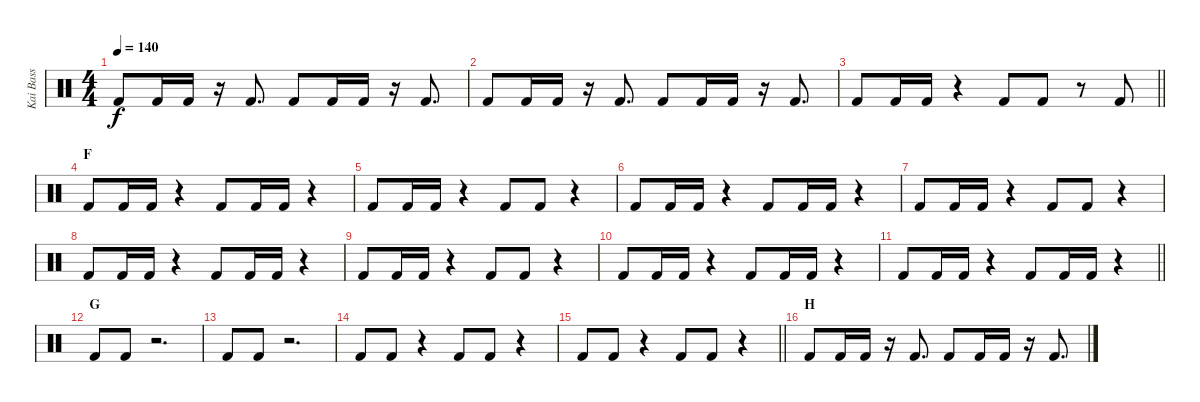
\track ("Kai Bass" "Kai Bass") {instrument percussion}
\staff {score}
\articulation defaults
\ts (4 4)
\tempo 140
\clef neutral
\ks c "Kick (hit) 2".8{dy f} "Kick (hit) 2".16 "Kick (hit) 2".16
r.16 "Kick (hit) 2".8{d} "Kick (hit) 2".8 "Kick (hit) 2".16 "Kick (hit) 2".16 r.16 "Kick (hit) 2".8{d} |
"Kick (hit) 2".8 "Kick (hit) 2".16 "Kick (hit) 2".16 r.16 "Kick (hit) 2".8{d} "Kick (hit) 2".8 "Kick (hit) 2".16 "Kick (hit) 2".16 r.16 "Kick (hit) 2".8{d} |
\barLineRight lightlight "Kick (hit) 2".8 "Kick (hit) 2".16 "Kick (hit) 2".16
r.4 "Kick (hit) 2".8 "Kick (hit) 2".8 r.8 "Kick (hit) 2".8 |
\section ("" "F")
"Kick (hit) 2".8 "Kick (hit) 2".16 "Kick (hit) 2".16 r.4 "Kick (hit) 2".8 "Kick (hit) 2".16 "Kick (hit) 2".16 r.4 |
"Kick (hit) 2".8 "Kick (hit) 2".16 "Kick (hit) 2".16 r.4 "Kick (hit) 2".8 "Kick (hit) 2".8 r.4 |
"Kick (hit) 2".8 "Kick (hit) 2".16 "Kick (hit) 2".16 r.4 "Kick (hit) 2".8 "Kick (hit) 2".16 "Kick (hit) 2".16 r.4 |
"Kick (hit) 2".8 "Kick (hit) 2".16 "Kick (hit) 2".16 r.4 "Kick (hit) 2".8 "Kick (hit) 2".8 r.4 |
"Kick (hit) 2".8 "Kick (hit) 2".16 "Kick (hit) 2".16 r.4 "Kick (hit) 2".8 "Kick (hit) 2".16 "Kick (hit) 2".16 r.4 |
"Kick (hit) 2".8 "Kick (hit) 2".16 "Kick (hit) 2".16 r.4 "Kick (hit) 2".8 "Kick (hit) 2".8 r.4 |
"Kick (hit) 2".8 "Kick (hit) 2".16 "Kick (hit) 2".16 r.4 "Kick (hit) 2".8 "Kick (hit) 2".16 "Kick (hit) 2".16 r.4 |
\barLineRight lightlight "Kick (hit) 2".8 "Kick (hit) 2".16 "Kick (hit) 2".16
r.4 "Kick (hit) 2".8 "Kick (hit) 2".16 "Kick (hit) 2".16 r.4 |
\section ("" "G")
"Kick (hit) 2".8 "Kick (hit) 2".8 r.2{d} |
"Kick (hit) 2".8 "Kick (hit) 2".8 r.2{d} |
"Kick (hit) 2".8 "Kick (hit) 2".8 r.4 "Kick (hit) 2".8 "Kick (hit) 2".8 r.4 |
\barLineRight lightlight "Kick (hit) 2".8 "Kick (hit) 2".8
r.4 "Kick (hit) 2".8 "Kick (hit) 2".8 r.4 |
\section ("" "H")
"Kick (hit) 2".8 "Kick (hit) 2".16 "Kick (hit) 2".16 r.16 "Kick (hit) 2".8{d} "Kick (hit) 2".8 "Kick (hit) 2".16 "Kick (hit) 2".16 r.16 "Kick (hit) 2".8{d}
